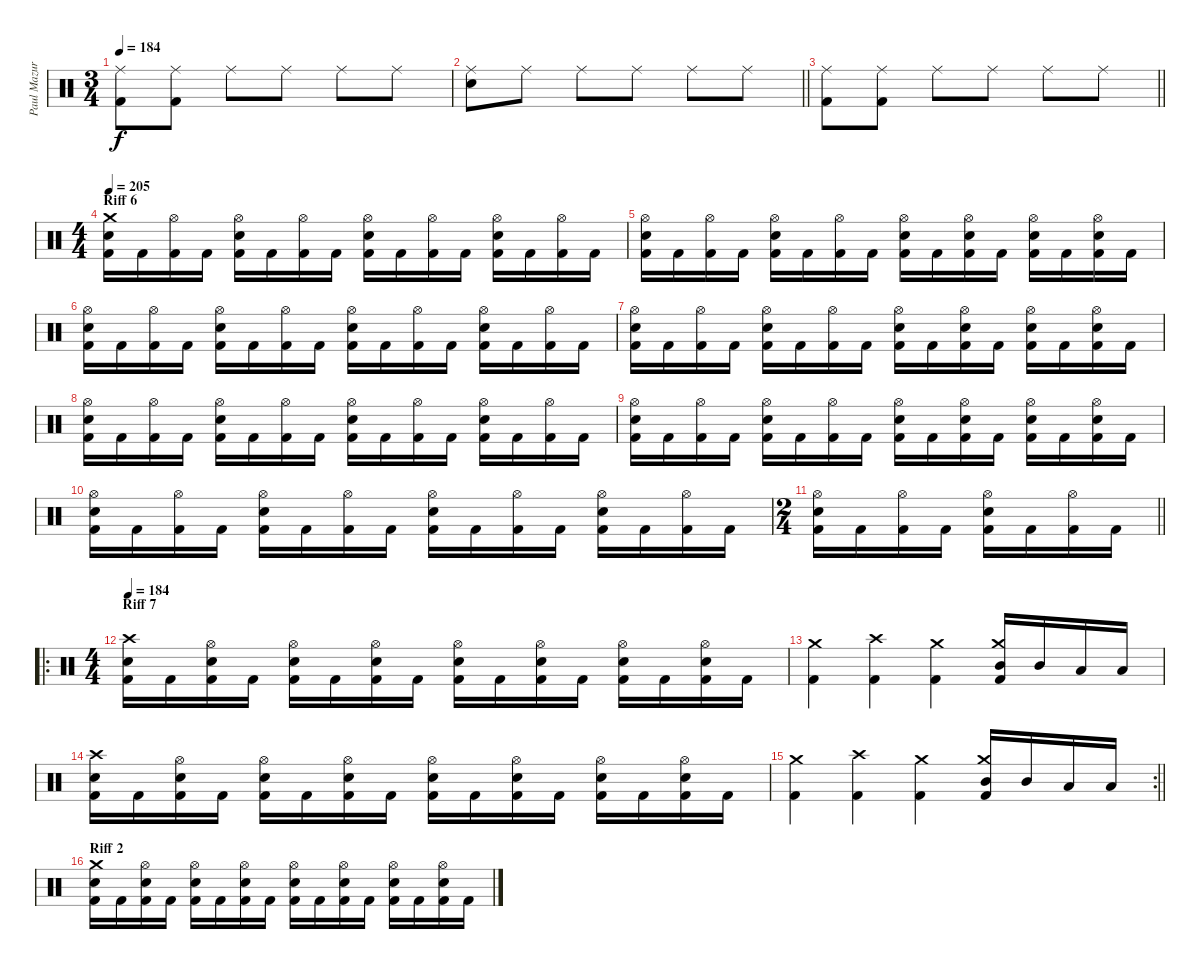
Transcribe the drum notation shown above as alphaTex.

\track ("Paul Mazurkiewicz" "Paul Mazur") {instrument percussion}
\staff {score}
\articulation defaults
\ts (3 4)
\tempo 184
\clef neutral
\ks c
("Ride (middle)" "Kick (hit) 2").8{dy f} ("Ride (middle)" "Kick (hit) 2").8 "Ride (middle)".8 "Ride (middle)".8 "Ride (middle)".8 "Ride (middle)".8 |
\barLineRight lightlight
("Ride (middle)" "Electric Snare (hit)").8 "Ride (middle)".8 "Ride (middle)".8 "Ride (middle)".8 "Ride (middle)".8 "Ride (middle)".8 |
\barLineRight lightlight
("Ride (middle)" "Kick (hit) 2").8 ("Ride (middle)" "Kick (hit) 2").8 "Ride (middle)".8 "Ride (middle)".8 "Ride (middle)".8 "Ride (middle)".8 |
\ts (4 4)
\section ("" "Riff 6")
\tempo 205
("Crash medium (hit)" "Electric Snare (hit)" "Kick (hit) 2").16 "Kick (hit) 2".16 ("Hi-Hat (open)" "Kick (hit) 2").16 "Kick (hit) 2".16 ("Hi-Hat (open)" "Electric Snare (hit)" "Kick (hit) 2").16 "Kick (hit) 2".16 ("Hi-Hat (open)" "Kick (hit) 2").16 "Kick (hit) 2".16 ("Hi-Hat (open)" "Electric Snare (hit)" "Kick (hit) 2").16 "Kick (hit) 2".16 ("Hi-Hat (open)" "Kick (hit) 2").16 "Kick (hit) 2".16 ("Hi-Hat (open)" "Electric Snare (hit)" "Kick (hit) 2").16 "Kick (hit) 2".16 ("Hi-Hat (open)" "Kick (hit) 2").16 "Kick (hit) 2".16 |
("Hi-Hat (open)" "Electric Snare (hit)" "Kick (hit) 2").16 "Kick (hit) 2".16 ("Hi-Hat (open)" "Kick (hit) 2").16 "Kick (hit) 2".16 ("Hi-Hat (open)" "Electric Snare (hit)" "Kick (hit) 2").16 "Kick (hit) 2".16 ("Hi-Hat (open)" "Kick (hit) 2").16 "Kick (hit) 2".16 ("Hi-Hat (open)" "Electric Snare (hit)" "Kick (hit) 2").16 "Kick (hit) 2".16 ("Hi-Hat (open)" "Electric Snare (hit)" "Kick (hit) 2").16 "Kick (hit) 2".16 ("Hi-Hat (open)" "Electric Snare (hit)" "Kick (hit) 2").16 "Kick (hit) 2".16 ("Hi-Hat (open)" "Electric Snare (hit)" "Kick (hit) 2").16 "Kick (hit) 2".16 |
("Hi-Hat (open)" "Electric Snare (hit)" "Kick (hit) 2").16 "Kick (hit) 2".16 ("Hi-Hat (open)" "Kick (hit) 2").16 "Kick (hit) 2".16 ("Hi-Hat (open)" "Electric Snare (hit)" "Kick (hit) 2").16 "Kick (hit) 2".16 ("Hi-Hat (open)" "Kick (hit) 2").16 "Kick (hit) 2".16 ("Hi-Hat (open)" "Electric Snare (hit)" "Kick (hit) 2").16 "Kick (hit) 2".16 ("Hi-Hat (open)" "Kick (hit) 2").16 "Kick (hit) 2".16 ("Hi-Hat (open)" "Electric Snare (hit)" "Kick (hit) 2").16 "Kick (hit) 2".16 ("Hi-Hat (open)" "Kick (hit) 2").16 "Kick (hit) 2".16 |
("Hi-Hat (open)" "Electric Snare (hit)" "Kick (hit) 2").16 "Kick (hit) 2".16 ("Hi-Hat (open)" "Kick (hit) 2").16 "Kick (hit) 2".16 ("Hi-Hat (open)" "Electric Snare (hit)" "Kick (hit) 2").16 "Kick (hit) 2".16 ("Hi-Hat (open)" "Kick (hit) 2").16 "Kick (hit) 2".16 ("Hi-Hat (open)" "Electric Snare (hit)" "Kick (hit) 2").16 "Kick (hit) 2".16 ("Hi-Hat (open)" "Electric Snare (hit)" "Kick (hit) 2").16 "Kick (hit) 2".16 ("Hi-Hat (open)" "Electric Snare (hit)" "Kick (hit) 2").16 "Kick (hit) 2".16 ("Hi-Hat (open)" "Electric Snare (hit)" "Kick (hit) 2").16 "Kick (hit) 2".16 |
("Hi-Hat (open)" "Electric Snare (hit)" "Kick (hit) 2").16 "Kick (hit) 2".16 ("Hi-Hat (open)" "Kick (hit) 2").16 "Kick (hit) 2".16 ("Hi-Hat (open)" "Electric Snare (hit)" "Kick (hit) 2").16 "Kick (hit) 2".16 ("Hi-Hat (open)" "Kick (hit) 2").16 "Kick (hit) 2".16 ("Hi-Hat (open)" "Electric Snare (hit)" "Kick (hit) 2").16 "Kick (hit) 2".16 ("Hi-Hat (open)" "Kick (hit) 2").16 "Kick (hit) 2".16 ("Hi-Hat (open)" "Electric Snare (hit)" "Kick (hit) 2").16 "Kick (hit) 2".16 ("Hi-Hat (open)" "Kick (hit) 2").16 "Kick (hit) 2".16 |
("Hi-Hat (open)" "Electric Snare (hit)" "Kick (hit) 2").16 "Kick (hit) 2".16 ("Hi-Hat (open)" "Kick (hit) 2").16 "Kick (hit) 2".16 ("Hi-Hat (open)" "Electric Snare (hit)" "Kick (hit) 2").16 "Kick (hit) 2".16 ("Hi-Hat (open)" "Kick (hit) 2").16 "Kick (hit) 2".16 ("Hi-Hat (open)" "Electric Snare (hit)" "Kick (hit) 2").16 "Kick (hit) 2".16 ("Hi-Hat (open)" "Electric Snare (hit)" "Kick (hit) 2").16 "Kick (hit) 2".16 ("Hi-Hat (open)" "Electric Snare (hit)" "Kick (hit) 2").16 "Kick (hit) 2".16 ("Hi-Hat (open)" "Electric Snare (hit)" "Kick (hit) 2").16 "Kick (hit) 2".16 |
("Hi-Hat (open)" "Electric Snare (hit)" "Kick (hit) 2").16 "Kick (hit) 2".16 ("Hi-Hat (open)" "Kick (hit) 2").16 "Kick (hit) 2".16 ("Hi-Hat (open)" "Electric Snare (hit)" "Kick (hit) 2").16 "Kick (hit) 2".16 ("Hi-Hat (open)" "Kick (hit) 2").16 "Kick (hit) 2".16 ("Hi-Hat (open)" "Electric Snare (hit)" "Kick (hit) 2").16 "Kick (hit) 2".16 ("Hi-Hat (open)" "Kick (hit) 2").16 "Kick (hit) 2".16 ("Hi-Hat (open)" "Electric Snare (hit)" "Kick (hit) 2").16 "Kick (hit) 2".16 ("Hi-Hat (open)" "Kick (hit) 2").16 "Kick (hit) 2".16 |
\ts (2 4)
\barLineRight lightlight
("Hi-Hat (open)" "Electric Snare (hit)" "Kick (hit) 2").16 "Kick (hit) 2".16 ("Hi-Hat (open)" "Kick (hit) 2").16 "Kick (hit) 2".16 ("Hi-Hat (open)" "Electric Snare (hit)" "Kick (hit) 2").16 "Kick (hit) 2".16 ("Hi-Hat (open)" "Kick (hit) 2").16 "Kick (hit) 2".16 |
\ro
\ts (4 4)
\section ("" "Riff 7")
\tempo 184
("Crash high (hit)" "Electric Snare (hit)" "Kick (hit) 2").16 "Kick (hit) 2".16 ("Hi-Hat (open)" "Electric Snare (hit)" "Kick (hit) 2").16 "Kick (hit) 2".16 ("Hi-Hat (open)" "Electric Snare (hit)" "Kick (hit) 2").16 "Kick (hit) 2".16 ("Hi-Hat (open)" "Electric Snare (hit)" "Kick (hit) 2").16 "Kick (hit) 2".16 ("Hi-Hat (open)" "Electric Snare (hit)" "Kick (hit) 2").16 "Kick (hit) 2".16 ("Hi-Hat (open)" "Electric Snare (hit)" "Kick (hit) 2").16 "Kick (hit) 2".16 ("Hi-Hat (open)" "Electric Snare (hit)" "Kick (hit) 2").16 "Kick (hit) 2".16 ("Hi-Hat (open)" "Electric Snare (hit)" "Kick (hit) 2").16 "Kick (hit) 2".16 |
("Crash medium (hit)" "Kick (hit) 2").4 ("Crash high (hit)" "Kick (hit) 2").4 ("Crash medium (hit)" "Kick (hit) 2").4 ("Crash medium (hit)" "Mid Tom (hit)" "Kick (hit) 2").16 "Mid Tom (hit)".16 "Low Tom (hit)".16 "Low Tom (hit)".16 |
("Crash high (hit)" "Electric Snare (hit)" "Kick (hit) 2").16 "Kick (hit) 2".16 ("Hi-Hat (open)" "Electric Snare (hit)" "Kick (hit) 2").16 "Kick (hit) 2".16 ("Hi-Hat (open)" "Electric Snare (hit)" "Kick (hit) 2").16 "Kick (hit) 2".16 ("Hi-Hat (open)" "Electric Snare (hit)" "Kick (hit) 2").16 "Kick (hit) 2".16 ("Hi-Hat (open)" "Electric Snare (hit)" "Kick (hit) 2").16 "Kick (hit) 2".16 ("Hi-Hat (open)" "Electric Snare (hit)" "Kick (hit) 2").16 "Kick (hit) 2".16 ("Hi-Hat (open)" "Electric Snare (hit)" "Kick (hit) 2").16 "Kick (hit) 2".16 ("Hi-Hat (open)" "Electric Snare (hit)" "Kick (hit) 2").16 "Kick (hit) 2".16 |
\rc 2
\barLineRight lightlight
("Crash medium (hit)" "Kick (hit) 2").4 ("Crash high (hit)" "Kick (hit) 2").4 ("Crash medium (hit)" "Kick (hit) 2").4 ("Crash medium (hit)" "Mid Tom (hit)" "Kick (hit) 2").16 "Mid Tom (hit)".16 "Low Tom (hit)".16 "Low Tom (hit)".16 |
\section ("" "Riff 2")
("Crash medium (hit)" "Electric Snare (hit)" "Kick (hit) 2").16 "Kick (hit) 2".16 ("Hi-Hat (open)" "Electric Snare (hit)" "Kick (hit) 2").16 "Kick (hit) 2".16 ("Hi-Hat (open)" "Electric Snare (hit)" "Kick (hit) 2").16 "Kick (hit) 2".16 ("Hi-Hat (open)" "Electric Snare (hit)" "Kick (hit) 2").16 "Kick (hit) 2".16 ("Hi-Hat (open)" "Electric Snare (hit)" "Kick (hit) 2").16 "Kick (hit) 2".16 ("Hi-Hat (open)" "Electric Snare (hit)" "Kick (hit) 2").16 "Kick (hit) 2".16 ("Hi-Hat (open)" "Electric Snare (hit)" "Kick (hit) 2").16 "Kick (hit) 2".16 ("Hi-Hat (open)" "Electric Snare (hit)" "Kick (hit) 2").16 "Kick (hit) 2".16
